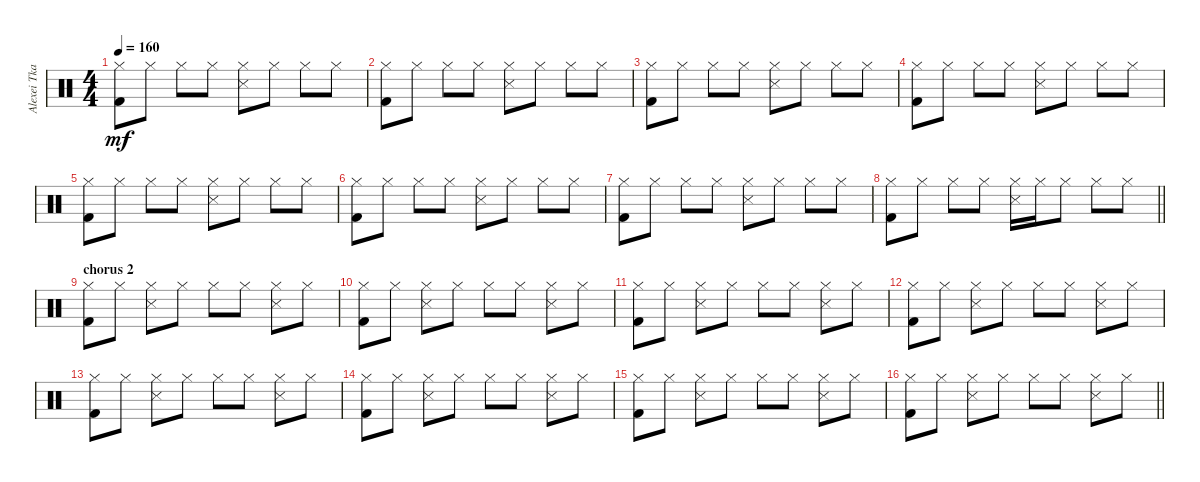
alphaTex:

\track ("Alexei Tkachevskiy " "Alexei Tka") {instrument percussion}
\staff {score}
\articulation defaults
\ts (4 4)
\tempo 160
\clef neutral
\ks c
("Hi-Hat (closed)" "Kick (hit) 2").8{dy mf} "Hi-Hat (closed)".8 "Hi-Hat (closed)".8 "Hi-Hat (closed)".8 ("Hi-Hat (closed)" "Snare (side stick) 3").8 "Hi-Hat (closed)".8 "Hi-Hat (closed)".8 "Hi-Hat (closed)".8 |
("Hi-Hat (closed)" "Kick (hit) 2").8 "Hi-Hat (closed)".8 "Hi-Hat (closed)".8 "Hi-Hat (closed)".8 ("Hi-Hat (closed)" "Snare (side stick) 3").8 "Hi-Hat (closed)".8 "Hi-Hat (closed)".8 "Hi-Hat (closed)".8 |
("Hi-Hat (closed)" "Kick (hit) 2").8 "Hi-Hat (closed)".8 "Hi-Hat (closed)".8 "Hi-Hat (closed)".8 ("Hi-Hat (closed)" "Snare (side stick) 3").8 "Hi-Hat (closed)".8 "Hi-Hat (closed)".8 "Hi-Hat (closed)".8 |
("Hi-Hat (closed)" "Kick (hit) 2").8 "Hi-Hat (closed)".8 "Hi-Hat (closed)".8 "Hi-Hat (closed)".8 ("Hi-Hat (closed)" "Snare (side stick) 3").8 "Hi-Hat (closed)".8 "Hi-Hat (closed)".8 "Hi-Hat (closed)".8 |
("Hi-Hat (closed)" "Kick (hit) 2").8 "Hi-Hat (closed)".8 "Hi-Hat (closed)".8 "Hi-Hat (closed)".8 ("Hi-Hat (closed)" "Snare (side stick) 3").8 "Hi-Hat (closed)".8 "Hi-Hat (closed)".8 "Hi-Hat (closed)".8 |
("Hi-Hat (closed)" "Kick (hit) 2").8 "Hi-Hat (closed)".8 "Hi-Hat (closed)".8 "Hi-Hat (closed)".8 ("Hi-Hat (closed)" "Snare (side stick) 3").8 "Hi-Hat (closed)".8 "Hi-Hat (closed)".8 "Hi-Hat (closed)".8 |
("Hi-Hat (closed)" "Kick (hit) 2").8 "Hi-Hat (closed)".8 "Hi-Hat (closed)".8 "Hi-Hat (closed)".8 ("Hi-Hat (closed)" "Snare (side stick) 3").8 "Hi-Hat (closed)".8 "Hi-Hat (closed)".8 "Hi-Hat (closed)".8 |
\barLineRight lightlight
("Hi-Hat (closed)" "Kick (hit) 2").8 "Hi-Hat (closed)".8 "Hi-Hat (closed)".8 "Hi-Hat (closed)".8 ("Hi-Hat (closed)" "Snare (side stick) 3").16 "Hi-Hat (closed)".16 "Hi-Hat (closed)".8 "Hi-Hat (closed)".8 "Hi-Hat (closed)".8 |
\section ("" "chorus 2")
("Hi-Hat (closed)" "Kick (hit) 2").8 "Hi-Hat (closed)".8 ("Hi-Hat (closed)" "Snare (side stick) 3").8 "Hi-Hat (closed)".8 "Hi-Hat (closed)".8 "Hi-Hat (closed)".8 ("Hi-Hat (closed)" "Snare (side stick) 3").8 "Hi-Hat (closed)".8 |
("Hi-Hat (closed)" "Kick (hit) 2").8 "Hi-Hat (closed)".8 ("Hi-Hat (closed)" "Snare (side stick) 3").8 "Hi-Hat (closed)".8 "Hi-Hat (closed)".8 "Hi-Hat (closed)".8 ("Hi-Hat (closed)" "Snare (side stick) 3").8 "Hi-Hat (closed)".8 |
("Hi-Hat (closed)" "Kick (hit) 2").8 "Hi-Hat (closed)".8 ("Hi-Hat (closed)" "Snare (side stick) 3").8 "Hi-Hat (closed)".8 "Hi-Hat (closed)".8 "Hi-Hat (closed)".8 ("Hi-Hat (closed)" "Snare (side stick) 3").8 "Hi-Hat (closed)".8 |
("Hi-Hat (closed)" "Kick (hit) 2").8 "Hi-Hat (closed)".8 ("Hi-Hat (closed)" "Snare (side stick) 3").8 "Hi-Hat (closed)".8 "Hi-Hat (closed)".8 "Hi-Hat (closed)".8 ("Hi-Hat (closed)" "Snare (side stick) 3").8 "Hi-Hat (closed)".8 |
("Hi-Hat (closed)" "Kick (hit) 2").8 "Hi-Hat (closed)".8 ("Hi-Hat (closed)" "Snare (side stick) 3").8 "Hi-Hat (closed)".8 "Hi-Hat (closed)".8 "Hi-Hat (closed)".8 ("Hi-Hat (closed)" "Snare (side stick) 3").8 "Hi-Hat (closed)".8 |
("Hi-Hat (closed)" "Kick (hit) 2").8 "Hi-Hat (closed)".8 ("Hi-Hat (closed)" "Snare (side stick) 3").8 "Hi-Hat (closed)".8 "Hi-Hat (closed)".8 "Hi-Hat (closed)".8 ("Hi-Hat (closed)" "Snare (side stick) 3").8 "Hi-Hat (closed)".8 |
("Hi-Hat (closed)" "Kick (hit) 2").8 "Hi-Hat (closed)".8 ("Hi-Hat (closed)" "Snare (side stick) 3").8 "Hi-Hat (closed)".8 "Hi-Hat (closed)".8 "Hi-Hat (closed)".8 ("Hi-Hat (closed)" "Snare (side stick) 3").8 "Hi-Hat (closed)".8 |
\barLineRight lightlight
("Hi-Hat (closed)" "Kick (hit) 2").8 "Hi-Hat (closed)".8 ("Hi-Hat (closed)" "Snare (side stick) 3").8 "Hi-Hat (closed)".8 "Hi-Hat (closed)".8 "Hi-Hat (closed)".8 ("Hi-Hat (closed)" "Snare (side stick) 3").8 "Hi-Hat (closed)".8
